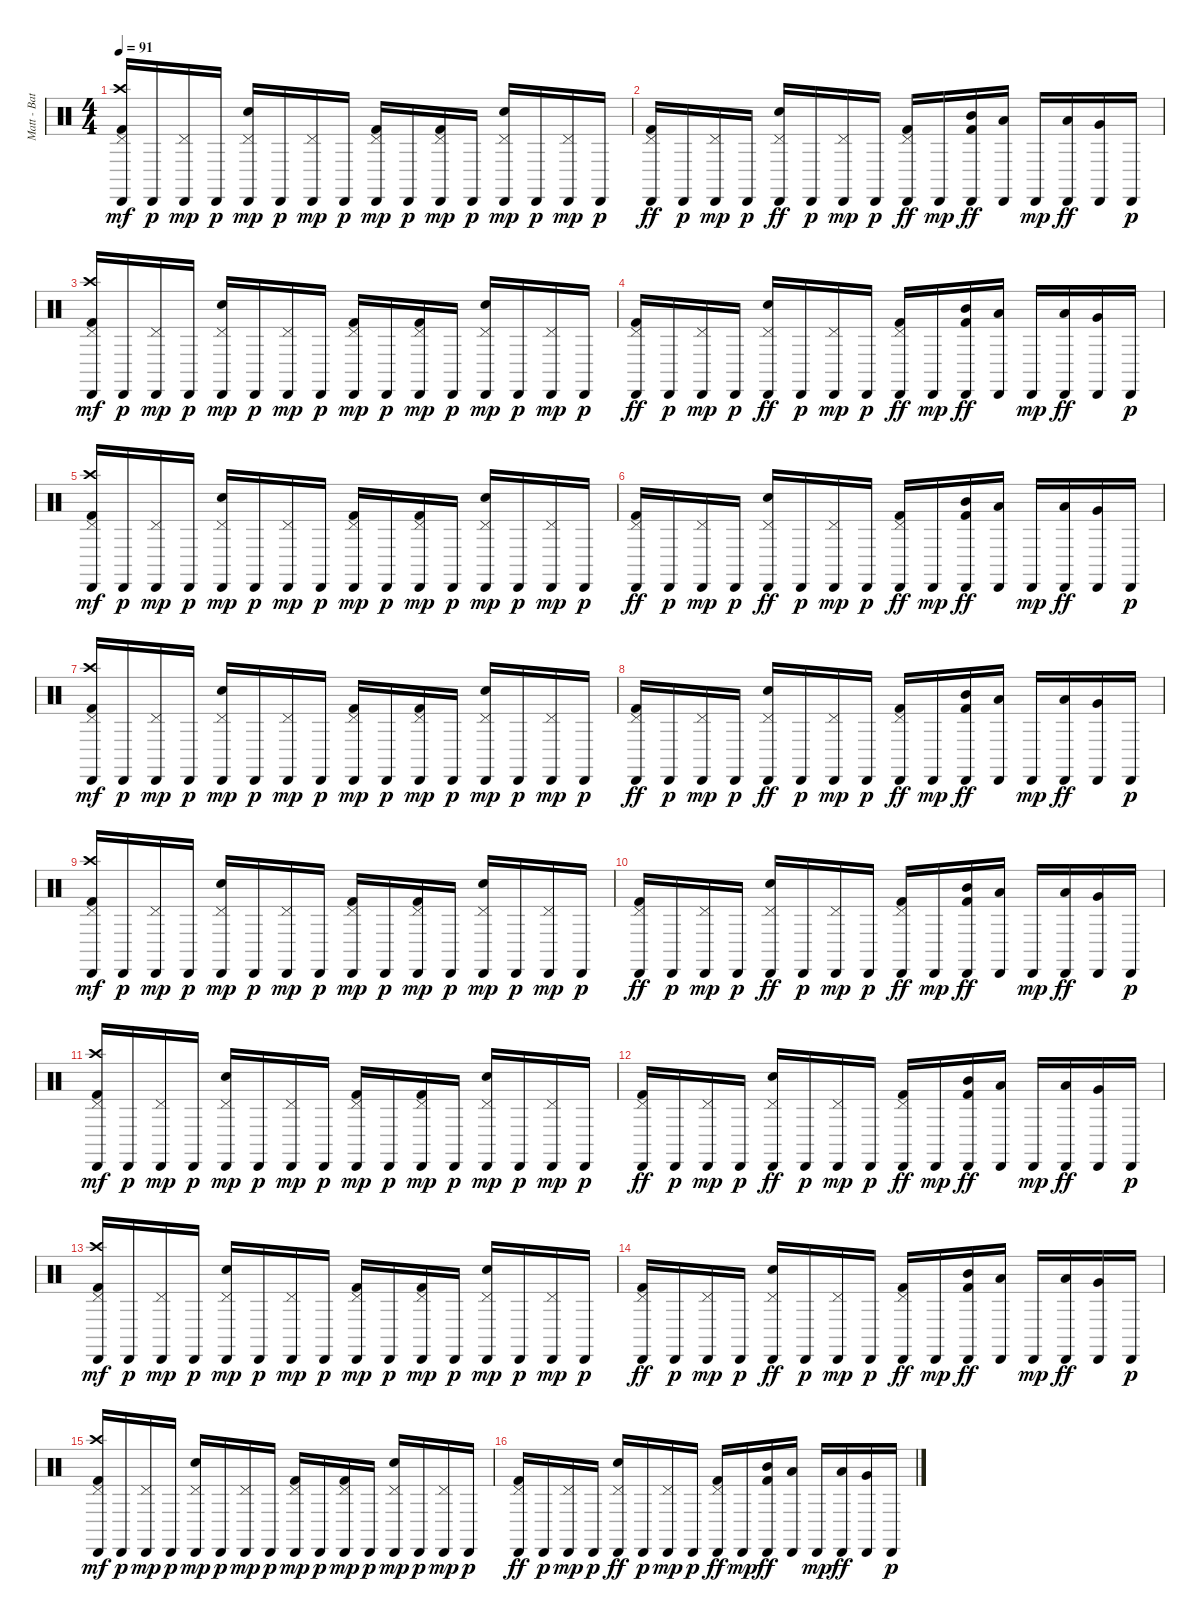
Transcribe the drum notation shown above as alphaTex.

\track ("Matt - Batería" "Matt - Bat") {instrument percussion}
\staff {score}
\articulation defaults
\ts (4 4)
\tempo 91
\clef neutral
\ks c
("Cabasa (hit)" "Crash high (hit)" "Pedal Hi-Hat (hit)" "Kick (hit) 2").16{dy mf} "Cabasa (hit)".16{dy p} ("Cabasa (hit)" "Pedal Hi-Hat (hit)").16{dy mp} "Cabasa (hit)".16{dy p} ("Cabasa (hit)" "Pedal Hi-Hat (hit)" "Snare (hit) 2").16{dy mp} "Cabasa (hit)".16{dy p} ("Cabasa (hit)" "Pedal Hi-Hat (hit)").16{dy mp} "Cabasa (hit)".16{dy p} ("Cabasa (hit)" "Pedal Hi-Hat (hit)" "Kick (hit) 2").16{dy mp} "Cabasa (hit)".16{dy p} ("Cabasa (hit)" "Pedal Hi-Hat (hit)" "Kick (hit) 2").16{dy mp} "Cabasa (hit)".16{dy p} ("Cabasa (hit)" "Pedal Hi-Hat (hit)" "Snare (hit) 2").16{dy mp} "Cabasa (hit)".16{dy p} ("Cabasa (hit)" "Pedal Hi-Hat (hit)").16{dy mp} "Cabasa (hit)".16{dy p} |
("Cabasa (hit)" "Pedal Hi-Hat (hit)" "Kick (hit) 2").16{dy ff} "Cabasa (hit)".16{dy p} ("Cabasa (hit)" "Pedal Hi-Hat (hit)").16{dy mp} "Cabasa (hit)".16{dy p} ("Cabasa (hit)" "Pedal Hi-Hat (hit)" "Snare (hit) 2").16{dy ff} "Cabasa (hit)".16{dy p} ("Cabasa (hit)" "Pedal Hi-Hat (hit)").16{dy mp} "Cabasa (hit)".16{dy p} ("Cabasa (hit)" "Pedal Hi-Hat (hit)" "Kick (hit) 2").16{dy ff} "Cabasa (hit)".16{dy mp} ("Cabasa (hit)" "Mid Tom (hit)" "Kick (hit) 2").16{dy ff} ("Cabasa (hit)" "Low Tom (hit)").16 "Cabasa (hit)".16{dy mp} ("Cabasa (hit)" "Low Tom (hit)").16{dy ff} ("Cabasa (hit)" "Very Low Tom (hit)").16 "Cabasa (hit)".16{dy p} |
("Cabasa (hit)" "Crash high (hit)" "Pedal Hi-Hat (hit)" "Kick (hit) 2").16{dy mf} "Cabasa (hit)".16{dy p} ("Cabasa (hit)" "Pedal Hi-Hat (hit)").16{dy mp} "Cabasa (hit)".16{dy p} ("Cabasa (hit)" "Pedal Hi-Hat (hit)" "Snare (hit) 2").16{dy mp} "Cabasa (hit)".16{dy p} ("Cabasa (hit)" "Pedal Hi-Hat (hit)").16{dy mp} "Cabasa (hit)".16{dy p} ("Cabasa (hit)" "Pedal Hi-Hat (hit)" "Kick (hit) 2").16{dy mp} "Cabasa (hit)".16{dy p} ("Cabasa (hit)" "Pedal Hi-Hat (hit)" "Kick (hit) 2").16{dy mp} "Cabasa (hit)".16{dy p} ("Cabasa (hit)" "Pedal Hi-Hat (hit)" "Snare (hit) 2").16{dy mp} "Cabasa (hit)".16{dy p} ("Cabasa (hit)" "Pedal Hi-Hat (hit)").16{dy mp} "Cabasa (hit)".16{dy p} |
("Cabasa (hit)" "Pedal Hi-Hat (hit)" "Kick (hit) 2").16{dy ff} "Cabasa (hit)".16{dy p} ("Cabasa (hit)" "Pedal Hi-Hat (hit)").16{dy mp} "Cabasa (hit)".16{dy p} ("Cabasa (hit)" "Pedal Hi-Hat (hit)" "Snare (hit) 2").16{dy ff} "Cabasa (hit)".16{dy p} ("Cabasa (hit)" "Pedal Hi-Hat (hit)").16{dy mp} "Cabasa (hit)".16{dy p} ("Cabasa (hit)" "Pedal Hi-Hat (hit)" "Kick (hit) 2").16{dy ff} "Cabasa (hit)".16{dy mp} ("Cabasa (hit)" "Mid Tom (hit)" "Kick (hit) 2").16{dy ff} ("Cabasa (hit)" "Low Tom (hit)").16 "Cabasa (hit)".16{dy mp} ("Cabasa (hit)" "Low Tom (hit)").16{dy ff} ("Cabasa (hit)" "Very Low Tom (hit)").16 "Cabasa (hit)".16{dy p} |
("Cabasa (hit)" "Crash high (hit)" "Pedal Hi-Hat (hit)" "Kick (hit) 2").16{dy mf} "Cabasa (hit)".16{dy p} ("Cabasa (hit)" "Pedal Hi-Hat (hit)").16{dy mp} "Cabasa (hit)".16{dy p} ("Cabasa (hit)" "Pedal Hi-Hat (hit)" "Snare (hit) 2").16{dy mp} "Cabasa (hit)".16{dy p} ("Cabasa (hit)" "Pedal Hi-Hat (hit)").16{dy mp} "Cabasa (hit)".16{dy p} ("Cabasa (hit)" "Pedal Hi-Hat (hit)" "Kick (hit) 2").16{dy mp} "Cabasa (hit)".16{dy p} ("Cabasa (hit)" "Pedal Hi-Hat (hit)" "Kick (hit) 2").16{dy mp} "Cabasa (hit)".16{dy p} ("Cabasa (hit)" "Pedal Hi-Hat (hit)" "Snare (hit) 2").16{dy mp} "Cabasa (hit)".16{dy p} ("Cabasa (hit)" "Pedal Hi-Hat (hit)").16{dy mp} "Cabasa (hit)".16{dy p} |
("Cabasa (hit)" "Pedal Hi-Hat (hit)" "Kick (hit) 2").16{dy ff} "Cabasa (hit)".16{dy p} ("Cabasa (hit)" "Pedal Hi-Hat (hit)").16{dy mp} "Cabasa (hit)".16{dy p} ("Cabasa (hit)" "Pedal Hi-Hat (hit)" "Snare (hit) 2").16{dy ff} "Cabasa (hit)".16{dy p} ("Cabasa (hit)" "Pedal Hi-Hat (hit)").16{dy mp} "Cabasa (hit)".16{dy p} ("Cabasa (hit)" "Pedal Hi-Hat (hit)" "Kick (hit) 2").16{dy ff} "Cabasa (hit)".16{dy mp} ("Cabasa (hit)" "Mid Tom (hit)" "Kick (hit) 2").16{dy ff} ("Cabasa (hit)" "Low Tom (hit)").16 "Cabasa (hit)".16{dy mp} ("Cabasa (hit)" "Low Tom (hit)").16{dy ff} ("Cabasa (hit)" "Very Low Tom (hit)").16 "Cabasa (hit)".16{dy p} |
("Cabasa (hit)" "Crash high (hit)" "Pedal Hi-Hat (hit)" "Kick (hit) 2").16{dy mf} "Cabasa (hit)".16{dy p} ("Cabasa (hit)" "Pedal Hi-Hat (hit)").16{dy mp} "Cabasa (hit)".16{dy p} ("Cabasa (hit)" "Pedal Hi-Hat (hit)" "Snare (hit) 2").16{dy mp} "Cabasa (hit)".16{dy p} ("Cabasa (hit)" "Pedal Hi-Hat (hit)").16{dy mp} "Cabasa (hit)".16{dy p} ("Cabasa (hit)" "Pedal Hi-Hat (hit)" "Kick (hit) 2").16{dy mp} "Cabasa (hit)".16{dy p} ("Cabasa (hit)" "Pedal Hi-Hat (hit)" "Kick (hit) 2").16{dy mp} "Cabasa (hit)".16{dy p} ("Cabasa (hit)" "Pedal Hi-Hat (hit)" "Snare (hit) 2").16{dy mp} "Cabasa (hit)".16{dy p} ("Cabasa (hit)" "Pedal Hi-Hat (hit)").16{dy mp} "Cabasa (hit)".16{dy p} |
("Cabasa (hit)" "Pedal Hi-Hat (hit)" "Kick (hit) 2").16{dy ff} "Cabasa (hit)".16{dy p} ("Cabasa (hit)" "Pedal Hi-Hat (hit)").16{dy mp} "Cabasa (hit)".16{dy p} ("Cabasa (hit)" "Pedal Hi-Hat (hit)" "Snare (hit) 2").16{dy ff} "Cabasa (hit)".16{dy p} ("Cabasa (hit)" "Pedal Hi-Hat (hit)").16{dy mp} "Cabasa (hit)".16{dy p} ("Cabasa (hit)" "Pedal Hi-Hat (hit)" "Kick (hit) 2").16{dy ff} "Cabasa (hit)".16{dy mp} ("Cabasa (hit)" "Mid Tom (hit)" "Kick (hit) 2").16{dy ff} ("Cabasa (hit)" "Low Tom (hit)").16 "Cabasa (hit)".16{dy mp} ("Cabasa (hit)" "Low Tom (hit)").16{dy ff} ("Cabasa (hit)" "Very Low Tom (hit)").16 "Cabasa (hit)".16{dy p} |
("Cabasa (hit)" "Crash high (hit)" "Pedal Hi-Hat (hit)" "Kick (hit) 2").16{dy mf} "Cabasa (hit)".16{dy p} ("Cabasa (hit)" "Pedal Hi-Hat (hit)").16{dy mp} "Cabasa (hit)".16{dy p} ("Cabasa (hit)" "Pedal Hi-Hat (hit)" "Snare (hit) 2").16{dy mp} "Cabasa (hit)".16{dy p} ("Cabasa (hit)" "Pedal Hi-Hat (hit)").16{dy mp} "Cabasa (hit)".16{dy p} ("Cabasa (hit)" "Pedal Hi-Hat (hit)" "Kick (hit) 2").16{dy mp} "Cabasa (hit)".16{dy p} ("Cabasa (hit)" "Pedal Hi-Hat (hit)" "Kick (hit) 2").16{dy mp} "Cabasa (hit)".16{dy p} ("Cabasa (hit)" "Pedal Hi-Hat (hit)" "Snare (hit) 2").16{dy mp} "Cabasa (hit)".16{dy p} ("Cabasa (hit)" "Pedal Hi-Hat (hit)").16{dy mp} "Cabasa (hit)".16{dy p} |
("Cabasa (hit)" "Pedal Hi-Hat (hit)" "Kick (hit) 2").16{dy ff} "Cabasa (hit)".16{dy p} ("Cabasa (hit)" "Pedal Hi-Hat (hit)").16{dy mp} "Cabasa (hit)".16{dy p} ("Cabasa (hit)" "Pedal Hi-Hat (hit)" "Snare (hit) 2").16{dy ff} "Cabasa (hit)".16{dy p} ("Cabasa (hit)" "Pedal Hi-Hat (hit)").16{dy mp} "Cabasa (hit)".16{dy p} ("Cabasa (hit)" "Pedal Hi-Hat (hit)" "Kick (hit) 2").16{dy ff} "Cabasa (hit)".16{dy mp} ("Cabasa (hit)" "Mid Tom (hit)" "Kick (hit) 2").16{dy ff} ("Cabasa (hit)" "Low Tom (hit)").16 "Cabasa (hit)".16{dy mp} ("Cabasa (hit)" "Low Tom (hit)").16{dy ff} ("Cabasa (hit)" "Very Low Tom (hit)").16 "Cabasa (hit)".16{dy p} |
("Cabasa (hit)" "Crash high (hit)" "Pedal Hi-Hat (hit)" "Kick (hit) 2").16{dy mf} "Cabasa (hit)".16{dy p} ("Cabasa (hit)" "Pedal Hi-Hat (hit)").16{dy mp} "Cabasa (hit)".16{dy p} ("Cabasa (hit)" "Pedal Hi-Hat (hit)" "Snare (hit) 2").16{dy mp} "Cabasa (hit)".16{dy p} ("Cabasa (hit)" "Pedal Hi-Hat (hit)").16{dy mp} "Cabasa (hit)".16{dy p} ("Cabasa (hit)" "Pedal Hi-Hat (hit)" "Kick (hit) 2").16{dy mp} "Cabasa (hit)".16{dy p} ("Cabasa (hit)" "Pedal Hi-Hat (hit)" "Kick (hit) 2").16{dy mp} "Cabasa (hit)".16{dy p} ("Cabasa (hit)" "Pedal Hi-Hat (hit)" "Snare (hit) 2").16{dy mp} "Cabasa (hit)".16{dy p} ("Cabasa (hit)" "Pedal Hi-Hat (hit)").16{dy mp} "Cabasa (hit)".16{dy p} |
("Cabasa (hit)" "Pedal Hi-Hat (hit)" "Kick (hit) 2").16{dy ff} "Cabasa (hit)".16{dy p} ("Cabasa (hit)" "Pedal Hi-Hat (hit)").16{dy mp} "Cabasa (hit)".16{dy p} ("Cabasa (hit)" "Pedal Hi-Hat (hit)" "Snare (hit) 2").16{dy ff} "Cabasa (hit)".16{dy p} ("Cabasa (hit)" "Pedal Hi-Hat (hit)").16{dy mp} "Cabasa (hit)".16{dy p} ("Cabasa (hit)" "Pedal Hi-Hat (hit)" "Kick (hit) 2").16{dy ff} "Cabasa (hit)".16{dy mp} ("Cabasa (hit)" "Mid Tom (hit)" "Kick (hit) 2").16{dy ff} ("Cabasa (hit)" "Low Tom (hit)").16 "Cabasa (hit)".16{dy mp} ("Cabasa (hit)" "Low Tom (hit)").16{dy ff} ("Cabasa (hit)" "Very Low Tom (hit)").16 "Cabasa (hit)".16{dy p} |
("Cabasa (hit)" "Crash high (hit)" "Pedal Hi-Hat (hit)" "Kick (hit) 2").16{dy mf} "Cabasa (hit)".16{dy p} ("Cabasa (hit)" "Pedal Hi-Hat (hit)").16{dy mp} "Cabasa (hit)".16{dy p} ("Cabasa (hit)" "Pedal Hi-Hat (hit)" "Snare (hit) 2").16{dy mp} "Cabasa (hit)".16{dy p} ("Cabasa (hit)" "Pedal Hi-Hat (hit)").16{dy mp} "Cabasa (hit)".16{dy p} ("Cabasa (hit)" "Pedal Hi-Hat (hit)" "Kick (hit) 2").16{dy mp} "Cabasa (hit)".16{dy p} ("Cabasa (hit)" "Pedal Hi-Hat (hit)" "Kick (hit) 2").16{dy mp} "Cabasa (hit)".16{dy p} ("Cabasa (hit)" "Pedal Hi-Hat (hit)" "Snare (hit) 2").16{dy mp} "Cabasa (hit)".16{dy p} ("Cabasa (hit)" "Pedal Hi-Hat (hit)").16{dy mp} "Cabasa (hit)".16{dy p} |
("Cabasa (hit)" "Pedal Hi-Hat (hit)" "Kick (hit) 2").16{dy ff} "Cabasa (hit)".16{dy p} ("Cabasa (hit)" "Pedal Hi-Hat (hit)").16{dy mp} "Cabasa (hit)".16{dy p} ("Cabasa (hit)" "Pedal Hi-Hat (hit)" "Snare (hit) 2").16{dy ff} "Cabasa (hit)".16{dy p} ("Cabasa (hit)" "Pedal Hi-Hat (hit)").16{dy mp} "Cabasa (hit)".16{dy p} ("Cabasa (hit)" "Pedal Hi-Hat (hit)" "Kick (hit) 2").16{dy ff} "Cabasa (hit)".16{dy mp} ("Cabasa (hit)" "Mid Tom (hit)" "Kick (hit) 2").16{dy ff} ("Cabasa (hit)" "Low Tom (hit)").16 "Cabasa (hit)".16{dy mp} ("Cabasa (hit)" "Low Tom (hit)").16{dy ff} ("Cabasa (hit)" "Very Low Tom (hit)").16 "Cabasa (hit)".16{dy p} |
("Cabasa (hit)" "Crash high (hit)" "Pedal Hi-Hat (hit)" "Kick (hit) 2").16{dy mf} "Cabasa (hit)".16{dy p} ("Cabasa (hit)" "Pedal Hi-Hat (hit)").16{dy mp} "Cabasa (hit)".16{dy p} ("Cabasa (hit)" "Pedal Hi-Hat (hit)" "Snare (hit) 2").16{dy mp} "Cabasa (hit)".16{dy p} ("Cabasa (hit)" "Pedal Hi-Hat (hit)").16{dy mp} "Cabasa (hit)".16{dy p} ("Cabasa (hit)" "Pedal Hi-Hat (hit)" "Kick (hit) 2").16{dy mp} "Cabasa (hit)".16{dy p} ("Cabasa (hit)" "Pedal Hi-Hat (hit)" "Kick (hit) 2").16{dy mp} "Cabasa (hit)".16{dy p} ("Cabasa (hit)" "Pedal Hi-Hat (hit)" "Snare (hit) 2").16{dy mp} "Cabasa (hit)".16{dy p} ("Cabasa (hit)" "Pedal Hi-Hat (hit)").16{dy mp} "Cabasa (hit)".16{dy p} |
("Cabasa (hit)" "Pedal Hi-Hat (hit)" "Kick (hit) 2").16{dy ff} "Cabasa (hit)".16{dy p} ("Cabasa (hit)" "Pedal Hi-Hat (hit)").16{dy mp} "Cabasa (hit)".16{dy p} ("Cabasa (hit)" "Pedal Hi-Hat (hit)" "Snare (hit) 2").16{dy ff} "Cabasa (hit)".16{dy p} ("Cabasa (hit)" "Pedal Hi-Hat (hit)").16{dy mp} "Cabasa (hit)".16{dy p} ("Cabasa (hit)" "Pedal Hi-Hat (hit)" "Kick (hit) 2").16{dy ff} "Cabasa (hit)".16{dy mp} ("Cabasa (hit)" "Mid Tom (hit)" "Kick (hit) 2").16{dy ff} ("Cabasa (hit)" "Low Tom (hit)").16 "Cabasa (hit)".16{dy mp} ("Cabasa (hit)" "Low Tom (hit)").16{dy ff} ("Cabasa (hit)" "Very Low Tom (hit)").16 "Cabasa (hit)".16{dy p}
